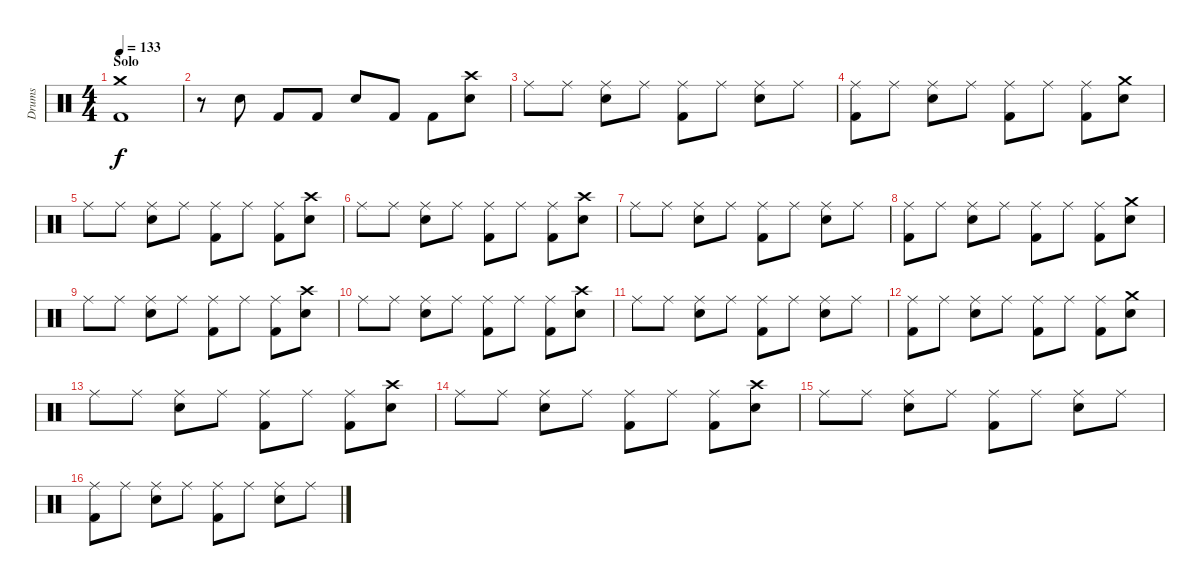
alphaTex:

\track ("Drums" "Drums") {instrument percussion}
\staff {score}
\articulation defaults
\ts (4 4)
\section ("" "Solo")
\tempo 133
\clef neutral
\ks c
("Crash medium (hit)" "Kick (hit) 2").1{dy f} |
r.8 "Snare (hit) 2".8 "Kick (hit) 2".8 "Kick (hit) 2".8 "Snare (hit) 2".8 "Kick (hit) 2".8 "Kick (hit) 2".8 ("Crash high (hit)" "Snare (hit) 2").8 |
"Ride (middle)".8 "Ride (middle)".8 ("Ride (middle)" "Snare (hit) 2").8 "Ride (middle)".8 ("Ride (middle)" "Kick (hit) 2").8 "Ride (middle)".8 ("Ride (middle)" "Snare (hit) 2").8 "Ride (middle)".8 |
("Ride (middle)" "Kick (hit) 2").8 "Ride (middle)".8 ("Ride (middle)" "Snare (hit) 2").8 "Ride (middle)".8 ("Ride (middle)" "Kick (hit) 2").8 "Ride (middle)".8 ("Ride (middle)" "Kick (hit) 2").8 ("Crash medium (hit)" "Snare (hit) 2").8 |
"Ride (middle)".8 "Ride (middle)".8 ("Ride (middle)" "Snare (hit) 2").8 "Ride (middle)".8 ("Ride (middle)" "Kick (hit) 2").8 "Ride (middle)".8 ("Ride (middle)" "Kick (hit) 2").8 ("Crash high (hit)" "Snare (hit) 2").8 |
"Ride (middle)".8 "Ride (middle)".8 ("Ride (middle)" "Snare (hit) 2").8 "Ride (middle)".8 ("Ride (middle)" "Kick (hit) 2").8 "Ride (middle)".8 ("Ride (middle)" "Kick (hit) 2").8 ("Crash high (hit)" "Snare (hit) 2").8 |
"Ride (middle)".8 "Ride (middle)".8 ("Ride (middle)" "Snare (hit) 2").8 "Ride (middle)".8 ("Ride (middle)" "Kick (hit) 2").8 "Ride (middle)".8 ("Ride (middle)" "Snare (hit) 2").8 "Ride (middle)".8 |
("Ride (middle)" "Kick (hit) 2").8 "Ride (middle)".8 ("Ride (middle)" "Snare (hit) 2").8 "Ride (middle)".8 ("Ride (middle)" "Kick (hit) 2").8 "Ride (middle)".8 ("Ride (middle)" "Kick (hit) 2").8 ("Crash medium (hit)" "Snare (hit) 2").8 |
"Ride (middle)".8 "Ride (middle)".8 ("Ride (middle)" "Snare (hit) 2").8 "Ride (middle)".8 ("Ride (middle)" "Kick (hit) 2").8 "Ride (middle)".8 ("Ride (middle)" "Kick (hit) 2").8 ("Crash high (hit)" "Snare (hit) 2").8 |
"Ride (middle)".8 "Ride (middle)".8 ("Ride (middle)" "Snare (hit) 2").8 "Ride (middle)".8 ("Ride (middle)" "Kick (hit) 2").8 "Ride (middle)".8 ("Ride (middle)" "Kick (hit) 2").8 ("Crash high (hit)" "Snare (hit) 2").8 |
"Ride (middle)".8 "Ride (middle)".8 ("Ride (middle)" "Snare (hit) 2").8 "Ride (middle)".8 ("Ride (middle)" "Kick (hit) 2").8 "Ride (middle)".8 ("Ride (middle)" "Snare (hit) 2").8 "Ride (middle)".8 |
("Ride (middle)" "Kick (hit) 2").8 "Ride (middle)".8 ("Ride (middle)" "Snare (hit) 2").8 "Ride (middle)".8 ("Ride (middle)" "Kick (hit) 2").8 "Ride (middle)".8 ("Ride (middle)" "Kick (hit) 2").8 ("Crash medium (hit)" "Snare (hit) 2").8 |
"Ride (middle)".8 "Ride (middle)".8 ("Ride (middle)" "Snare (hit) 2").8 "Ride (middle)".8 ("Ride (middle)" "Kick (hit) 2").8 "Ride (middle)".8 ("Ride (middle)" "Kick (hit) 2").8 ("Crash high (hit)" "Snare (hit) 2").8 |
"Ride (middle)".8 "Ride (middle)".8 ("Ride (middle)" "Snare (hit) 2").8 "Ride (middle)".8 ("Ride (middle)" "Kick (hit) 2").8 "Ride (middle)".8 ("Ride (middle)" "Kick (hit) 2").8 ("Crash high (hit)" "Snare (hit) 2").8 |
"Ride (middle)".8 "Ride (middle)".8 ("Ride (middle)" "Snare (hit) 2").8 "Ride (middle)".8 ("Ride (middle)" "Kick (hit) 2").8 "Ride (middle)".8 ("Ride (middle)" "Snare (hit) 2").8 "Ride (middle)".8 |
("Ride (middle)" "Kick (hit) 2").8 "Ride (middle)".8 ("Ride (middle)" "Snare (hit) 2").8 "Ride (middle)".8 ("Ride (middle)" "Kick (hit) 2").8 "Ride (middle)".8 ("Ride (middle)" "Snare (hit) 2").8 "Ride (middle)".8
